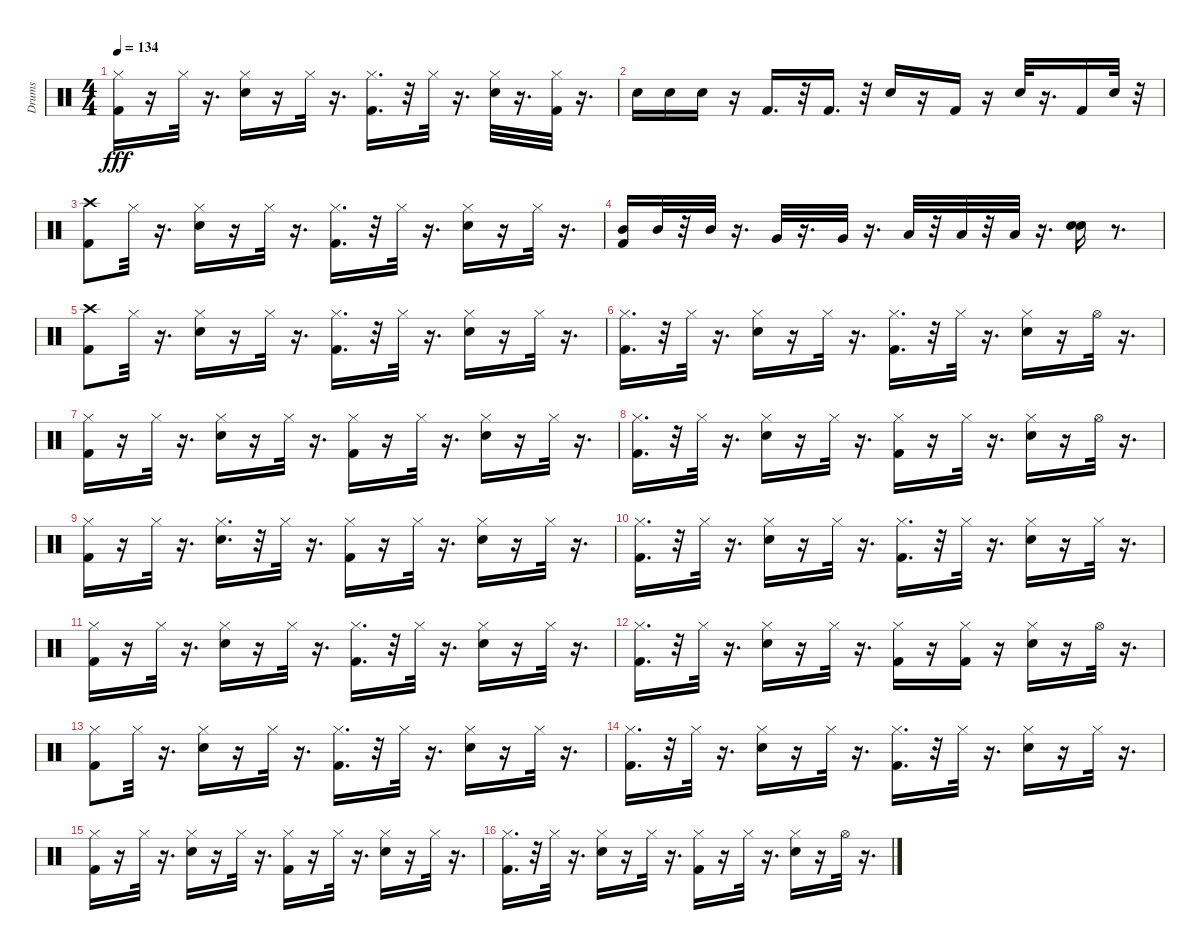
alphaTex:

\track ("Drums" "Drums") {instrument percussion}
\staff {score}
\articulation defaults
\ts (4 4)
\tempo 134
\clef neutral
\ks c
("Kick (hit) 2" "Hi-Hat (closed)").16{dy fff} r.16 "Hi-Hat (closed)".32 r.16{d} ("Snare (hit) 2" "Hi-Hat (closed)").16 r.16 "Hi-Hat (closed)".32 r.16{d} ("Kick (hit) 2" "Hi-Hat (closed)").16{d} r.32 "Hi-Hat (closed)".32 r.16{d} ("Snare (hit) 2" "Hi-Hat (closed)").32 r.16{d} ("Kick (hit) 2" "Hi-Hat (closed)").32 r.16{d} |
"Snare (hit) 2".16 "Snare (hit) 2".16 "Snare (hit) 2".16 r.16 "Kick (hit) 2".16{d} r.32 "Kick (hit) 2".16{d} r.32 "Snare (hit) 2".16 r.16 "Kick (hit) 2".16 r.16 "Snare (hit) 2".32 r.16{d} "Kick (hit) 2".16 "Snare (hit) 2".32 r.32 |
("Kick (hit) 2" "Crash high (hit)").8 "Hi-Hat (closed)".32 r.16{d} ("Snare (hit) 2" "Hi-Hat (closed)").16 r.16 "Hi-Hat (closed)".32 r.16{d} ("Kick (hit) 2" "Hi-Hat (closed)").16{d} r.32 "Hi-Hat (closed)".32 r.16{d} ("Snare (hit) 2" "Hi-Hat (closed)").16 r.16 "Hi-Hat (closed)".32 r.16{d} |
("Kick (hit) 2" "Mid Tom (hit)").16 "Mid Tom (hit)".32 r.32 "Mid Tom (hit)".32 r.16{d} "Very Low Tom (hit)".32 r.16{d} "Very Low Tom (hit)".32 r.16{d} "Low Floor Tom (hit)".32 r.32 "Low Floor Tom (hit)".32 r.32 "Low Floor Tom (hit)".32 r.16{d} ("Snare (hit) 2" "Snare (hit) 2").16 r.8{d} |
("Kick (hit) 2" "Crash high (hit)").8 "Hi-Hat (closed)".32 r.16{d} ("Snare (hit) 2" "Hi-Hat (closed)").16 r.16 "Hi-Hat (closed)".32 r.16{d} ("Kick (hit) 2" "Hi-Hat (closed)").16{d} r.32 "Hi-Hat (closed)".32 r.16{d} ("Snare (hit) 2" "Hi-Hat (closed)").16 r.16 "Hi-Hat (closed)".32 r.16{d} |
("Kick (hit) 2" "Hi-Hat (closed)").16{d} r.32 "Hi-Hat (closed)".32 r.16{d} ("Snare (hit) 2" "Hi-Hat (closed)").16 r.16 "Hi-Hat (closed)".32 r.16{d} ("Kick (hit) 2" "Hi-Hat (closed)").16{d} r.32 "Hi-Hat (closed)".32 r.16{d} ("Snare (hit) 2" "Hi-Hat (closed)").16 r.16 "Hi-Hat (open)".32 r.16{d} |
("Kick (hit) 2" "Hi-Hat (closed)").16 r.16 "Hi-Hat (closed)".32 r.16{d} ("Snare (hit) 2" "Hi-Hat (closed)").16 r.16 "Hi-Hat (closed)".32 r.16{d} ("Kick (hit) 2" "Hi-Hat (closed)").16 r.16 "Hi-Hat (closed)".32 r.16{d} ("Snare (hit) 2" "Hi-Hat (closed)").16 r.16 "Hi-Hat (closed)".32 r.16{d} |
("Kick (hit) 2" "Hi-Hat (closed)").16{d} r.32 "Hi-Hat (closed)".32 r.16{d} ("Snare (hit) 2" "Hi-Hat (closed)").16 r.16 "Hi-Hat (closed)".32 r.16{d} ("Kick (hit) 2" "Hi-Hat (closed)").16 r.16 "Hi-Hat (closed)".32 r.16{d} ("Snare (hit) 2" "Hi-Hat (closed)").16 r.16 "Hi-Hat (open)".32 r.16{d} |
("Kick (hit) 2" "Hi-Hat (closed)").16 r.16 "Hi-Hat (closed)".32 r.16{d} ("Snare (hit) 2" "Hi-Hat (closed)").16{d} r.32 "Hi-Hat (closed)".32 r.16{d} ("Kick (hit) 2" "Hi-Hat (closed)").16 r.16 "Hi-Hat (closed)".32 r.16{d} ("Snare (hit) 2" "Hi-Hat (closed)").16 r.16 "Hi-Hat (closed)".32 r.16{d} |
("Kick (hit) 2" "Hi-Hat (closed)").16{d} r.32 "Hi-Hat (closed)".32 r.16{d} ("Snare (hit) 2" "Hi-Hat (closed)").16 r.16 "Hi-Hat (closed)".32 r.16{d} ("Kick (hit) 2" "Hi-Hat (closed)").16{d} r.32 "Hi-Hat (closed)".32 r.16{d} ("Snare (hit) 2" "Hi-Hat (closed)").16 r.16 "Hi-Hat (closed)".32 r.16{d} |
("Kick (hit) 2" "Hi-Hat (closed)").16 r.16 "Hi-Hat (closed)".32 r.16{d} ("Snare (hit) 2" "Hi-Hat (closed)").16 r.16 "Hi-Hat (closed)".32 r.16{d} ("Kick (hit) 2" "Hi-Hat (closed)").16{d} r.32 "Hi-Hat (closed)".32 r.16{d} ("Snare (hit) 2" "Hi-Hat (closed)").16 r.16 "Hi-Hat (closed)".32 r.16{d} |
("Kick (hit) 2" "Hi-Hat (closed)").16{d} r.32 "Hi-Hat (closed)".32 r.16{d} ("Snare (hit) 2" "Hi-Hat (closed)").16 r.16 "Hi-Hat (closed)".32 r.16{d} ("Kick (hit) 2" "Hi-Hat (closed)").16 r.16 ("Kick (hit) 2" "Hi-Hat (closed)").16 r.16 ("Snare (hit) 2" "Hi-Hat (closed)").16 r.16 "Hi-Hat (open)".32 r.16{d} |
("Kick (hit) 2" "Hi-Hat (closed)").8 "Hi-Hat (closed)".32 r.16{d} ("Snare (hit) 2" "Hi-Hat (closed)").16 r.16 "Hi-Hat (closed)".32 r.16{d} ("Kick (hit) 2" "Hi-Hat (closed)").16{d} r.32 "Hi-Hat (closed)".32 r.16{d} ("Snare (hit) 2" "Hi-Hat (closed)").16 r.16 "Hi-Hat (closed)".32 r.16{d} |
("Kick (hit) 2" "Hi-Hat (closed)").16{d} r.32 "Hi-Hat (closed)".32 r.16{d} ("Snare (hit) 2" "Hi-Hat (closed)").16 r.16 "Hi-Hat (closed)".32 r.16{d} ("Kick (hit) 2" "Hi-Hat (closed)").16{d} r.32 "Hi-Hat (closed)".32 r.16{d} ("Snare (hit) 2" "Hi-Hat (closed)").16 r.16 "Hi-Hat (closed)".32 r.16{d} |
("Kick (hit) 2" "Hi-Hat (closed)").16 r.16 "Hi-Hat (closed)".32 r.16{d} ("Snare (hit) 2" "Hi-Hat (closed)").16 r.16 "Hi-Hat (closed)".32 r.16{d} ("Kick (hit) 2" "Hi-Hat (closed)").16 r.16 "Hi-Hat (closed)".32 r.16{d} ("Snare (hit) 2" "Hi-Hat (closed)").16 r.16 "Hi-Hat (closed)".32 r.16{d} |
("Kick (hit) 2" "Hi-Hat (closed)").16{d} r.32 "Hi-Hat (closed)".32 r.16{d} ("Snare (hit) 2" "Hi-Hat (closed)").16 r.16 "Hi-Hat (closed)".32 r.16{d} ("Kick (hit) 2" "Hi-Hat (closed)").16 r.16 "Hi-Hat (closed)".32 r.16{d} ("Snare (hit) 2" "Hi-Hat (closed)").16 r.16 "Hi-Hat (open)".32 r.16{d}
